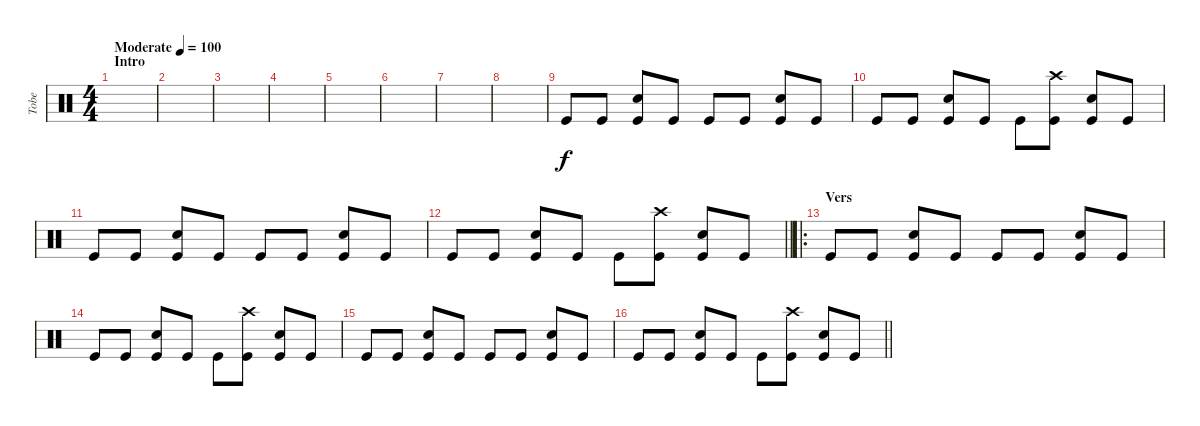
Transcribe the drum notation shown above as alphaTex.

\track ("Tobe" "Tobe") {instrument percussion}
\staff {score}
\articulation defaults
\ts (4 4)
\section ("" "Intro")
\tempo (100 "Moderate")
\clef neutral
\ks c
|
|
|
|
|
|
|
|
"Kick (hit)".8 "Kick (hit)".8 ("Snare (hit) 2" "Kick (hit)").8 "Kick (hit)".8 "Kick (hit)".8 "Kick (hit)".8 ("Snare (hit) 2" "Kick (hit)").8 "Kick (hit)".8 |
"Kick (hit)".8 "Kick (hit)".8 ("Snare (hit) 2" "Kick (hit)").8 "Kick (hit)".8 "Kick (hit)".8 ("Crash high (hit)" "Kick (hit)").8 ("Snare (hit) 2" "Kick (hit)").8 "Kick (hit)".8 |
"Kick (hit)".8 "Kick (hit)".8 ("Snare (hit) 2" "Kick (hit)").8 "Kick (hit)".8 "Kick (hit)".8 "Kick (hit)".8 ("Snare (hit) 2" "Kick (hit)").8 "Kick (hit)".8 |
\barLineRight lightlight "Kick (hit)".8 "Kick (hit)".8
("Snare (hit) 2" "Kick (hit)").8 "Kick (hit)".8 "Kick (hit)".8 ("Crash high (hit)" "Kick (hit)").8 ("Snare (hit) 2" "Kick (hit)").8 "Kick (hit)".8 |
\ro
\section ("" "Vers")
"Kick (hit)".8 "Kick (hit)".8 ("Snare (hit) 2" "Kick (hit)").8 "Kick (hit)".8 "Kick (hit)".8 "Kick (hit)".8 ("Snare (hit) 2" "Kick (hit)").8 "Kick (hit)".8 |
"Kick (hit)".8 "Kick (hit)".8 ("Snare (hit) 2" "Kick (hit)").8 "Kick (hit)".8 "Kick (hit)".8 ("Crash high (hit)" "Kick (hit)").8 ("Snare (hit) 2" "Kick (hit)").8 "Kick (hit)".8 |
"Kick (hit)".8 "Kick (hit)".8 ("Snare (hit) 2" "Kick (hit)").8 "Kick (hit)".8 "Kick (hit)".8 "Kick (hit)".8 ("Snare (hit) 2" "Kick (hit)").8 "Kick (hit)".8 |
\barLineRight lightlight "Kick (hit)".8 "Kick (hit)".8
("Snare (hit) 2" "Kick (hit)").8 "Kick (hit)".8 "Kick (hit)".8 ("Crash high (hit)" "Kick (hit)").8 ("Snare (hit) 2" "Kick (hit)").8 "Kick (hit)".8
